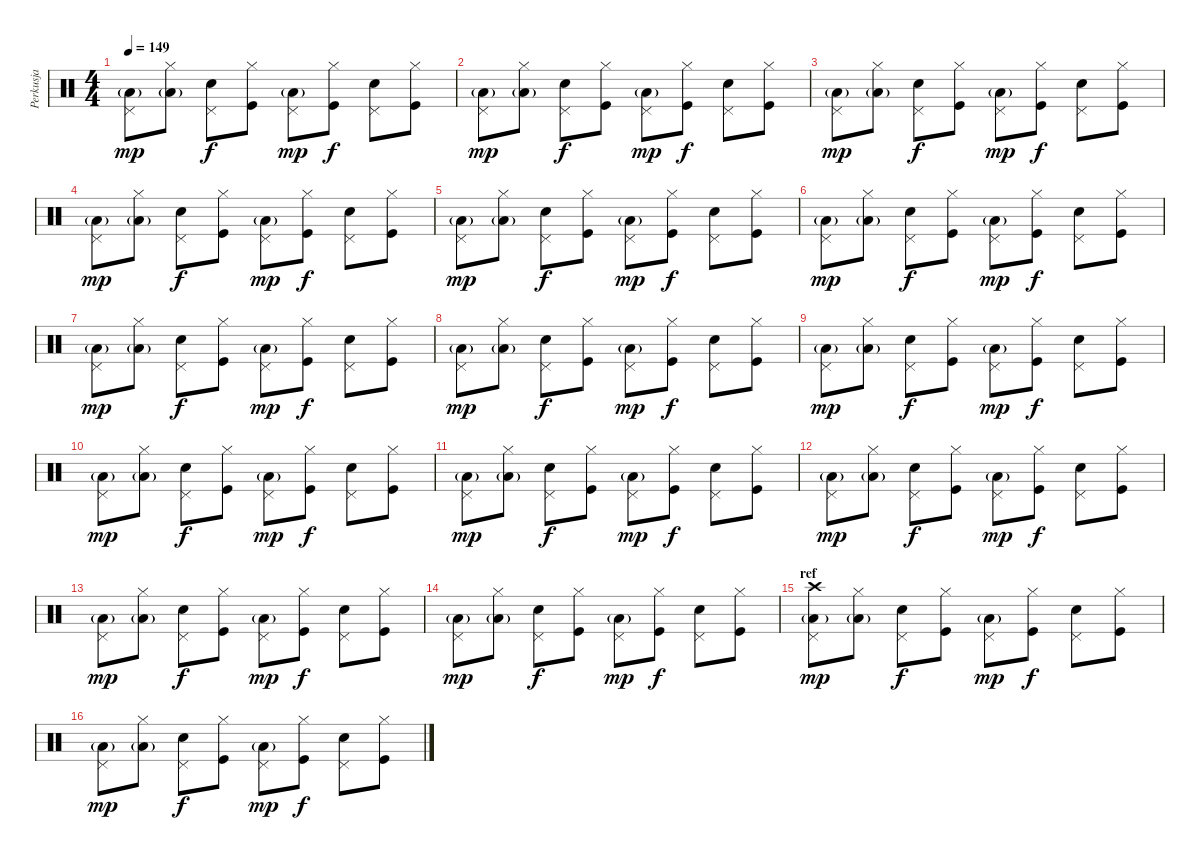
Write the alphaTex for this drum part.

\track ("Perkusja" "Perkusja") {instrument percussion}
\staff {score}
\articulation defaults
\ts (4 4)
\tempo 149
\clef neutral
\ks c
("Low Tom (hit)"{g} "Pedal Hi-Hat (hit)").8{dy mp} ("Low Tom (hit)"{g} "Hi-Hat (closed)").8 ("Electric Snare (hit)" "Pedal Hi-Hat (hit)").8{dy f} ("Kick (hit)" "Hi-Hat (closed)").8 ("Low Tom (hit)"{g} "Pedal Hi-Hat (hit)").8{dy mp} ("Kick (hit)" "Hi-Hat (closed)").8{dy f} ("Electric Snare (hit)" "Pedal Hi-Hat (hit)").8 ("Kick (hit)" "Hi-Hat (closed)").8 |
("Low Tom (hit)"{g} "Pedal Hi-Hat (hit)").8{dy mp} ("Low Tom (hit)"{g} "Hi-Hat (closed)").8 ("Electric Snare (hit)" "Pedal Hi-Hat (hit)").8{dy f} ("Kick (hit)" "Hi-Hat (closed)").8 ("Low Tom (hit)"{g} "Pedal Hi-Hat (hit)").8{dy mp} ("Kick (hit)" "Hi-Hat (closed)").8{dy f} ("Electric Snare (hit)" "Pedal Hi-Hat (hit)").8 ("Kick (hit)" "Hi-Hat (closed)").8 |
("Low Tom (hit)"{g} "Pedal Hi-Hat (hit)").8{dy mp} ("Low Tom (hit)"{g} "Hi-Hat (closed)").8 ("Electric Snare (hit)" "Pedal Hi-Hat (hit)").8{dy f} ("Kick (hit)" "Hi-Hat (closed)").8 ("Low Tom (hit)"{g} "Pedal Hi-Hat (hit)").8{dy mp} ("Kick (hit)" "Hi-Hat (closed)").8{dy f} ("Electric Snare (hit)" "Pedal Hi-Hat (hit)").8 ("Kick (hit)" "Hi-Hat (closed)").8 |
("Low Tom (hit)"{g} "Pedal Hi-Hat (hit)").8{dy mp} ("Low Tom (hit)"{g} "Hi-Hat (closed)").8 ("Electric Snare (hit)" "Pedal Hi-Hat (hit)").8{dy f} ("Kick (hit)" "Hi-Hat (closed)").8 ("Low Tom (hit)"{g} "Pedal Hi-Hat (hit)").8{dy mp} ("Kick (hit)" "Hi-Hat (closed)").8{dy f} ("Electric Snare (hit)" "Pedal Hi-Hat (hit)").8 ("Kick (hit)" "Hi-Hat (closed)").8 |
("Low Tom (hit)"{g} "Pedal Hi-Hat (hit)").8{dy mp} ("Low Tom (hit)"{g} "Hi-Hat (closed)").8 ("Electric Snare (hit)" "Pedal Hi-Hat (hit)").8{dy f} ("Kick (hit)" "Hi-Hat (closed)").8 ("Low Tom (hit)"{g} "Pedal Hi-Hat (hit)").8{dy mp} ("Kick (hit)" "Hi-Hat (closed)").8{dy f} ("Electric Snare (hit)" "Pedal Hi-Hat (hit)").8 ("Kick (hit)" "Hi-Hat (closed)").8 |
("Low Tom (hit)"{g} "Pedal Hi-Hat (hit)").8{dy mp} ("Low Tom (hit)"{g} "Hi-Hat (closed)").8 ("Electric Snare (hit)" "Pedal Hi-Hat (hit)").8{dy f} ("Kick (hit)" "Hi-Hat (closed)").8 ("Low Tom (hit)"{g} "Pedal Hi-Hat (hit)").8{dy mp} ("Kick (hit)" "Hi-Hat (closed)").8{dy f} ("Electric Snare (hit)" "Pedal Hi-Hat (hit)").8 ("Kick (hit)" "Hi-Hat (closed)").8 |
("Low Tom (hit)"{g} "Pedal Hi-Hat (hit)").8{dy mp} ("Low Tom (hit)"{g} "Hi-Hat (closed)").8 ("Electric Snare (hit)" "Pedal Hi-Hat (hit)").8{dy f} ("Kick (hit)" "Hi-Hat (closed)").8 ("Low Tom (hit)"{g} "Pedal Hi-Hat (hit)").8{dy mp} ("Kick (hit)" "Hi-Hat (closed)").8{dy f} ("Electric Snare (hit)" "Pedal Hi-Hat (hit)").8 ("Kick (hit)" "Hi-Hat (closed)").8 |
("Low Tom (hit)"{g} "Pedal Hi-Hat (hit)").8{dy mp} ("Low Tom (hit)"{g} "Hi-Hat (closed)").8 ("Electric Snare (hit)" "Pedal Hi-Hat (hit)").8{dy f} ("Kick (hit)" "Hi-Hat (closed)").8 ("Low Tom (hit)"{g} "Pedal Hi-Hat (hit)").8{dy mp} ("Kick (hit)" "Hi-Hat (closed)").8{dy f} ("Electric Snare (hit)" "Pedal Hi-Hat (hit)").8 ("Kick (hit)" "Hi-Hat (closed)").8 |
("Low Tom (hit)"{g} "Pedal Hi-Hat (hit)").8{dy mp} ("Low Tom (hit)"{g} "Hi-Hat (closed)").8 ("Electric Snare (hit)" "Pedal Hi-Hat (hit)").8{dy f} ("Kick (hit)" "Hi-Hat (closed)").8 ("Low Tom (hit)"{g} "Pedal Hi-Hat (hit)").8{dy mp} ("Kick (hit)" "Hi-Hat (closed)").8{dy f} ("Electric Snare (hit)" "Pedal Hi-Hat (hit)").8 ("Kick (hit)" "Hi-Hat (closed)").8 |
("Low Tom (hit)"{g} "Pedal Hi-Hat (hit)").8{dy mp} ("Low Tom (hit)"{g} "Hi-Hat (closed)").8 ("Electric Snare (hit)" "Pedal Hi-Hat (hit)").8{dy f} ("Kick (hit)" "Hi-Hat (closed)").8 ("Low Tom (hit)"{g} "Pedal Hi-Hat (hit)").8{dy mp} ("Kick (hit)" "Hi-Hat (closed)").8{dy f} ("Electric Snare (hit)" "Pedal Hi-Hat (hit)").8 ("Kick (hit)" "Hi-Hat (closed)").8 |
("Low Tom (hit)"{g} "Pedal Hi-Hat (hit)").8{dy mp} ("Low Tom (hit)"{g} "Hi-Hat (closed)").8 ("Electric Snare (hit)" "Pedal Hi-Hat (hit)").8{dy f} ("Kick (hit)" "Hi-Hat (closed)").8 ("Low Tom (hit)"{g} "Pedal Hi-Hat (hit)").8{dy mp} ("Kick (hit)" "Hi-Hat (closed)").8{dy f} ("Electric Snare (hit)" "Pedal Hi-Hat (hit)").8 ("Kick (hit)" "Hi-Hat (closed)").8 |
("Low Tom (hit)"{g} "Pedal Hi-Hat (hit)").8{dy mp} ("Low Tom (hit)"{g} "Hi-Hat (closed)").8 ("Electric Snare (hit)" "Pedal Hi-Hat (hit)").8{dy f} ("Kick (hit)" "Hi-Hat (closed)").8 ("Low Tom (hit)"{g} "Pedal Hi-Hat (hit)").8{dy mp} ("Kick (hit)" "Hi-Hat (closed)").8{dy f} ("Electric Snare (hit)" "Pedal Hi-Hat (hit)").8 ("Kick (hit)" "Hi-Hat (closed)").8 |
("Low Tom (hit)"{g} "Pedal Hi-Hat (hit)").8{dy mp} ("Low Tom (hit)"{g} "Hi-Hat (closed)").8 ("Electric Snare (hit)" "Pedal Hi-Hat (hit)").8{dy f} ("Kick (hit)" "Hi-Hat (closed)").8 ("Low Tom (hit)"{g} "Pedal Hi-Hat (hit)").8{dy mp} ("Kick (hit)" "Hi-Hat (closed)").8{dy f} ("Electric Snare (hit)" "Pedal Hi-Hat (hit)").8 ("Kick (hit)" "Hi-Hat (closed)").8 |
("Low Tom (hit)"{g} "Pedal Hi-Hat (hit)").8{dy mp} ("Low Tom (hit)"{g} "Hi-Hat (closed)").8 ("Electric Snare (hit)" "Pedal Hi-Hat (hit)").8{dy f} ("Kick (hit)" "Hi-Hat (closed)").8 ("Low Tom (hit)"{g} "Pedal Hi-Hat (hit)").8{dy mp} ("Kick (hit)" "Hi-Hat (closed)").8{dy f} ("Electric Snare (hit)" "Pedal Hi-Hat (hit)").8 ("Kick (hit)" "Hi-Hat (closed)").8 |
\section ("" "ref")
("Low Tom (hit)"{g} "Pedal Hi-Hat (hit)" "Crash high (hit)").8{dy mp} ("Low Tom (hit)"{g} "Hi-Hat (closed)").8 ("Electric Snare (hit)" "Pedal Hi-Hat (hit)").8{dy f} ("Kick (hit)" "Hi-Hat (closed)").8 ("Low Tom (hit)"{g} "Pedal Hi-Hat (hit)").8{dy mp} ("Kick (hit)" "Hi-Hat (closed)").8{dy f} ("Electric Snare (hit)" "Pedal Hi-Hat (hit)").8 ("Kick (hit)" "Hi-Hat (closed)").8 |
("Low Tom (hit)"{g} "Pedal Hi-Hat (hit)").8{dy mp} ("Low Tom (hit)"{g} "Hi-Hat (closed)").8 ("Electric Snare (hit)" "Pedal Hi-Hat (hit)").8{dy f} ("Kick (hit)" "Hi-Hat (closed)").8 ("Low Tom (hit)"{g} "Pedal Hi-Hat (hit)").8{dy mp} ("Kick (hit)" "Hi-Hat (closed)").8{dy f} ("Electric Snare (hit)" "Pedal Hi-Hat (hit)").8 ("Kick (hit)" "Hi-Hat (closed)").8
